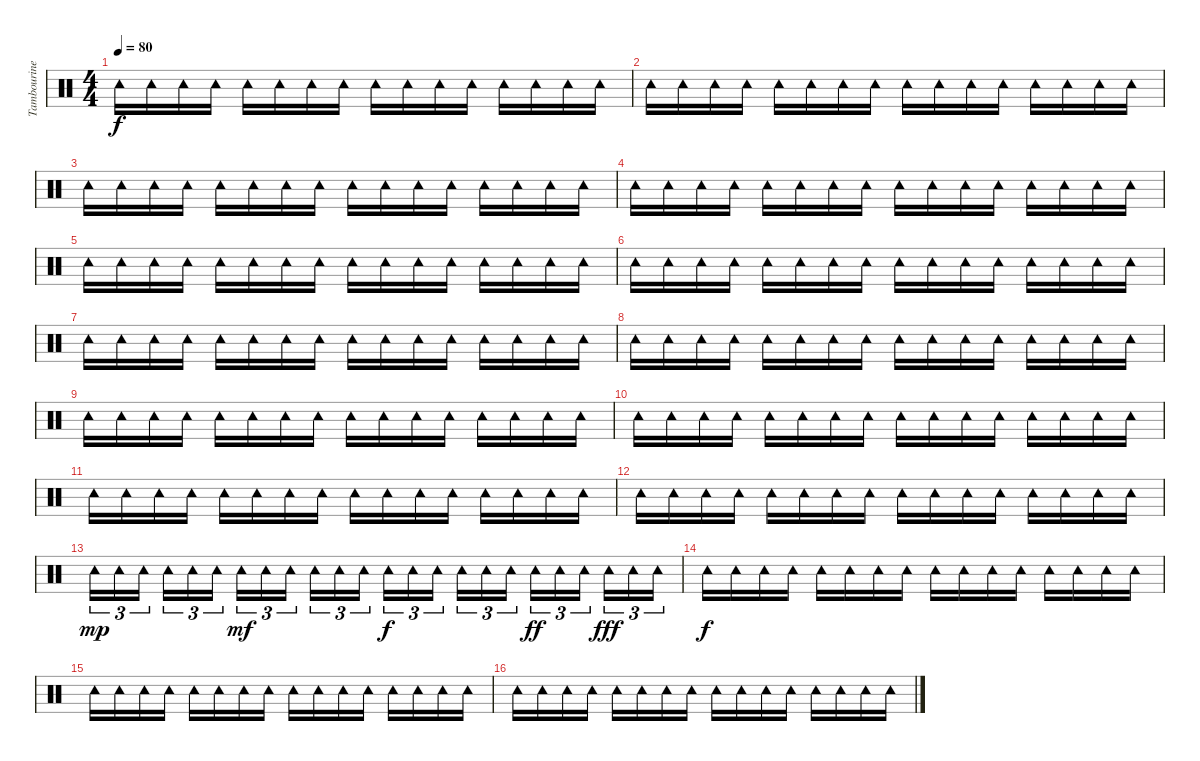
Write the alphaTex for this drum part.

\track ("Tambourine" "Tambourine") {instrument percussion}
\staff {score}
\articulation defaults
\ts (4 4)
\tempo 80
\clef neutral
\ks c "Tambourine (hit)".16{dy f} "Tambourine (hit)".16 "Tambourine (hit)".16 "Tambourine (hit)".16 "Tambourine (hit)".16 "Tambourine (hit)".16 "Tambourine (hit)".16 "Tambourine (hit)".16 "Tambourine (hit)".16 "Tambourine (hit)".16 "Tambourine (hit)".16 "Tambourine (hit)".16 "Tambourine (hit)".16 "Tambourine (hit)".16 "Tambourine (hit)".16 "Tambourine (hit)".16
|
"Tambourine (hit)".16 "Tambourine (hit)".16 "Tambourine (hit)".16 "Tambourine (hit)".16 "Tambourine (hit)".16 "Tambourine (hit)".16 "Tambourine (hit)".16 "Tambourine (hit)".16 "Tambourine (hit)".16 "Tambourine (hit)".16 "Tambourine (hit)".16 "Tambourine (hit)".16 "Tambourine (hit)".16 "Tambourine (hit)".16 "Tambourine (hit)".16 "Tambourine (hit)".16 |
"Tambourine (hit)".16 "Tambourine (hit)".16 "Tambourine (hit)".16 "Tambourine (hit)".16 "Tambourine (hit)".16 "Tambourine (hit)".16 "Tambourine (hit)".16 "Tambourine (hit)".16 "Tambourine (hit)".16 "Tambourine (hit)".16 "Tambourine (hit)".16 "Tambourine (hit)".16 "Tambourine (hit)".16 "Tambourine (hit)".16 "Tambourine (hit)".16 "Tambourine (hit)".16 |
"Tambourine (hit)".16 "Tambourine (hit)".16 "Tambourine (hit)".16 "Tambourine (hit)".16 "Tambourine (hit)".16 "Tambourine (hit)".16 "Tambourine (hit)".16 "Tambourine (hit)".16 "Tambourine (hit)".16 "Tambourine (hit)".16 "Tambourine (hit)".16 "Tambourine (hit)".16 "Tambourine (hit)".16 "Tambourine (hit)".16 "Tambourine (hit)".16 "Tambourine (hit)".16 |
"Tambourine (hit)".16 "Tambourine (hit)".16 "Tambourine (hit)".16 "Tambourine (hit)".16 "Tambourine (hit)".16 "Tambourine (hit)".16 "Tambourine (hit)".16 "Tambourine (hit)".16 "Tambourine (hit)".16 "Tambourine (hit)".16 "Tambourine (hit)".16 "Tambourine (hit)".16 "Tambourine (hit)".16 "Tambourine (hit)".16 "Tambourine (hit)".16 "Tambourine (hit)".16 |
"Tambourine (hit)".16 "Tambourine (hit)".16 "Tambourine (hit)".16 "Tambourine (hit)".16 "Tambourine (hit)".16 "Tambourine (hit)".16 "Tambourine (hit)".16 "Tambourine (hit)".16 "Tambourine (hit)".16 "Tambourine (hit)".16 "Tambourine (hit)".16 "Tambourine (hit)".16 "Tambourine (hit)".16 "Tambourine (hit)".16 "Tambourine (hit)".16 "Tambourine (hit)".16 |
"Tambourine (hit)".16 "Tambourine (hit)".16 "Tambourine (hit)".16 "Tambourine (hit)".16 "Tambourine (hit)".16 "Tambourine (hit)".16 "Tambourine (hit)".16 "Tambourine (hit)".16 "Tambourine (hit)".16 "Tambourine (hit)".16 "Tambourine (hit)".16 "Tambourine (hit)".16 "Tambourine (hit)".16 "Tambourine (hit)".16 "Tambourine (hit)".16 "Tambourine (hit)".16 |
"Tambourine (hit)".16 "Tambourine (hit)".16 "Tambourine (hit)".16 "Tambourine (hit)".16 "Tambourine (hit)".16 "Tambourine (hit)".16 "Tambourine (hit)".16 "Tambourine (hit)".16 "Tambourine (hit)".16 "Tambourine (hit)".16 "Tambourine (hit)".16 "Tambourine (hit)".16 "Tambourine (hit)".16 "Tambourine (hit)".16 "Tambourine (hit)".16 "Tambourine (hit)".16 |
"Tambourine (hit)".16 "Tambourine (hit)".16 "Tambourine (hit)".16 "Tambourine (hit)".16 "Tambourine (hit)".16 "Tambourine (hit)".16 "Tambourine (hit)".16 "Tambourine (hit)".16 "Tambourine (hit)".16 "Tambourine (hit)".16 "Tambourine (hit)".16 "Tambourine (hit)".16 "Tambourine (hit)".16 "Tambourine (hit)".16 "Tambourine (hit)".16 "Tambourine (hit)".16 |
"Tambourine (hit)".16 "Tambourine (hit)".16 "Tambourine (hit)".16 "Tambourine (hit)".16 "Tambourine (hit)".16 "Tambourine (hit)".16 "Tambourine (hit)".16 "Tambourine (hit)".16 "Tambourine (hit)".16 "Tambourine (hit)".16 "Tambourine (hit)".16 "Tambourine (hit)".16 "Tambourine (hit)".16 "Tambourine (hit)".16 "Tambourine (hit)".16 "Tambourine (hit)".16 |
"Tambourine (hit)".16 "Tambourine (hit)".16 "Tambourine (hit)".16 "Tambourine (hit)".16 "Tambourine (hit)".16 "Tambourine (hit)".16 "Tambourine (hit)".16 "Tambourine (hit)".16 "Tambourine (hit)".16 "Tambourine (hit)".16 "Tambourine (hit)".16 "Tambourine (hit)".16 "Tambourine (hit)".16 "Tambourine (hit)".16 "Tambourine (hit)".16 "Tambourine (hit)".16 |
"Tambourine (hit)".16 "Tambourine (hit)".16 "Tambourine (hit)".16 "Tambourine (hit)".16 "Tambourine (hit)".16 "Tambourine (hit)".16 "Tambourine (hit)".16 "Tambourine (hit)".16 "Tambourine (hit)".16 "Tambourine (hit)".16 "Tambourine (hit)".16 "Tambourine (hit)".16 "Tambourine (hit)".16 "Tambourine (hit)".16 "Tambourine (hit)".16 "Tambourine (hit)".16 |
"Tambourine (hit)".16{tu (3 2) dy mp} "Tambourine (hit)".16{tu (3 2)} "Tambourine (hit)".16{tu (3 2)} "Tambourine (hit)".16{tu (3 2)} "Tambourine (hit)".16{tu (3 2)} "Tambourine (hit)".16{tu (3 2)} "Tambourine (hit)".16{tu (3 2) dy mf} "Tambourine (hit)".16{tu (3 2)} "Tambourine (hit)".16{tu (3 2)} "Tambourine (hit)".16{tu (3 2)} "Tambourine (hit)".16{tu (3 2)} "Tambourine (hit)".16{tu (3 2)} "Tambourine (hit)".16{tu (3 2) dy f} "Tambourine (hit)".16{tu (3 2)} "Tambourine (hit)".16{tu (3 2)} "Tambourine (hit)".16{tu (3 2)} "Tambourine (hit)".16{tu (3 2)} "Tambourine (hit)".16{tu (3 2)} "Tambourine (hit)".16{tu (3 2) dy ff} "Tambourine (hit)".16{tu (3 2)} "Tambourine (hit)".16{tu (3 2)} "Tambourine (hit)".16{tu (3 2) dy fff} "Tambourine (hit)".16{tu (3 2)} "Tambourine (hit)".16{tu (3 2)} |
"Tambourine (hit)".16{dy f} "Tambourine (hit)".16 "Tambourine (hit)".16 "Tambourine (hit)".16 "Tambourine (hit)".16 "Tambourine (hit)".16 "Tambourine (hit)".16 "Tambourine (hit)".16 "Tambourine (hit)".16 "Tambourine (hit)".16 "Tambourine (hit)".16 "Tambourine (hit)".16 "Tambourine (hit)".16 "Tambourine (hit)".16 "Tambourine (hit)".16 "Tambourine (hit)".16 |
"Tambourine (hit)".16 "Tambourine (hit)".16 "Tambourine (hit)".16 "Tambourine (hit)".16 "Tambourine (hit)".16 "Tambourine (hit)".16 "Tambourine (hit)".16 "Tambourine (hit)".16 "Tambourine (hit)".16 "Tambourine (hit)".16 "Tambourine (hit)".16 "Tambourine (hit)".16 "Tambourine (hit)".16 "Tambourine (hit)".16 "Tambourine (hit)".16 "Tambourine (hit)".16 |
"Tambourine (hit)".16 "Tambourine (hit)".16 "Tambourine (hit)".16 "Tambourine (hit)".16 "Tambourine (hit)".16 "Tambourine (hit)".16 "Tambourine (hit)".16 "Tambourine (hit)".16 "Tambourine (hit)".16 "Tambourine (hit)".16 "Tambourine (hit)".16 "Tambourine (hit)".16 "Tambourine (hit)".16 "Tambourine (hit)".16 "Tambourine (hit)".16 "Tambourine (hit)".16
